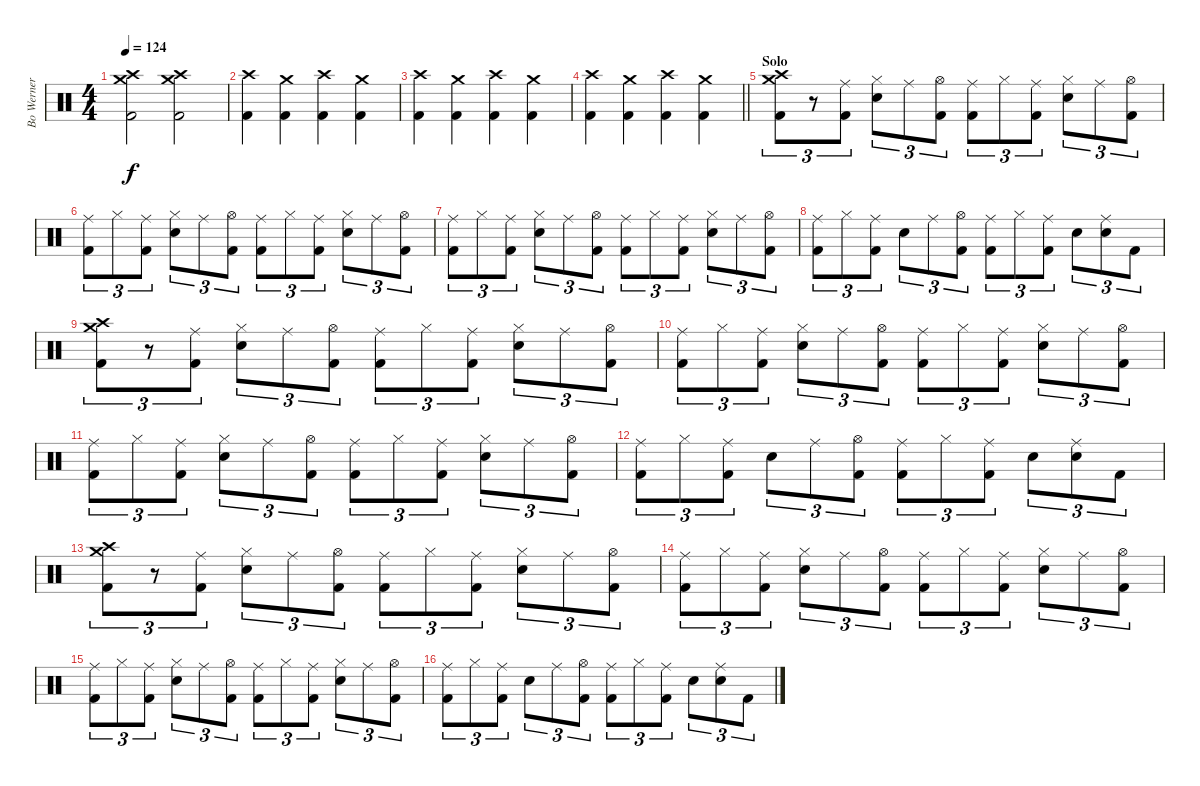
\track ("Bo Werner " "Bo Werner ") {instrument percussion}
\staff {score}
\articulation defaults
\ts (4 4)
\tempo 124
\clef neutral
\ks c
("Crash medium (hit)" "Crash high (hit)" "Kick (hit) 2").2{dy f} ("Crash high (hit)" "Crash medium (hit)" "Kick (hit) 2").2 |
("Crash high (hit)" "Kick (hit) 2").4 ("Crash medium (hit)" "Kick (hit) 2").4 ("Crash high (hit)" "Kick (hit) 2").4 ("Crash medium (hit)" "Kick (hit) 2").4 |
("Crash high (hit)" "Kick (hit) 2").4 ("Crash medium (hit)" "Kick (hit) 2").4 ("Crash high (hit)" "Kick (hit) 2").4 ("Crash medium (hit)" "Kick (hit) 2").4 |
\barLineRight lightlight
("Crash high (hit)" "Kick (hit) 2").4 ("Crash medium (hit)" "Kick (hit) 2").4 ("Crash high (hit)" "Kick (hit) 2").4 ("Crash medium (hit)" "Kick (hit) 2").4 |
\section ("" "Solo")
("Crash medium (hit)" "Crash high (hit)" "Kick (hit) 2").8{tu (3 2)} r.8{tu (3 2)} ("Ride (middle)" "Kick (hit) 2").8{tu (3 2)} ("Hi-Hat (closed)" "Electric Snare (hit)").8{tu (3 2)} "Ride (middle)".8{tu (3 2)} ("Hi-Hat (open)" "Kick (hit) 2").8{tu (3 2)} ("Ride (middle)" "Kick (hit) 2").8{tu (3 2)} "Hi-Hat (closed)".8{tu (3 2)} ("Ride (middle)" "Kick (hit) 2").8{tu (3 2)} ("Hi-Hat (closed)" "Electric Snare (hit)").8{tu (3 2)} "Ride (middle)".8{tu (3 2)} ("Hi-Hat (open)" "Kick (hit) 2").8{tu (3 2)} |
("Ride (middle)" "Kick (hit) 2").8{tu (3 2)} "Hi-Hat (closed)".8{tu (3 2)} ("Ride (middle)" "Kick (hit) 2").8{tu (3 2)} ("Hi-Hat (closed)" "Electric Snare (hit)").8{tu (3 2)} "Ride (middle)".8{tu (3 2)} ("Hi-Hat (open)" "Kick (hit) 2").8{tu (3 2)} ("Ride (middle)" "Kick (hit) 2").8{tu (3 2)} "Hi-Hat (closed)".8{tu (3 2)} ("Ride (middle)" "Kick (hit) 2").8{tu (3 2)} ("Hi-Hat (closed)" "Electric Snare (hit)").8{tu (3 2)} "Ride (middle)".8{tu (3 2)} ("Hi-Hat (open)" "Kick (hit) 2").8{tu (3 2)} |
("Ride (middle)" "Kick (hit) 2").8{tu (3 2)} "Hi-Hat (closed)".8{tu (3 2)} ("Ride (middle)" "Kick (hit) 2").8{tu (3 2)} ("Hi-Hat (closed)" "Electric Snare (hit)").8{tu (3 2)} "Ride (middle)".8{tu (3 2)} ("Hi-Hat (open)" "Kick (hit) 2").8{tu (3 2)} ("Ride (middle)" "Kick (hit) 2").8{tu (3 2)} "Hi-Hat (closed)".8{tu (3 2)} ("Ride (middle)" "Kick (hit) 2").8{tu (3 2)} ("Hi-Hat (closed)" "Electric Snare (hit)").8{tu (3 2)} "Ride (middle)".8{tu (3 2)} ("Hi-Hat (open)" "Kick (hit) 2").8{tu (3 2)} |
("Ride (middle)" "Kick (hit) 2").8{tu (3 2)} "Hi-Hat (closed)".8{tu (3 2)} ("Ride (middle)" "Kick (hit) 2").8{tu (3 2)} "Electric Snare (hit)".8{tu (3 2)} "Ride (middle)".8{tu (3 2)} ("Hi-Hat (open)" "Kick (hit) 2").8{tu (3 2)} ("Ride (middle)" "Kick (hit) 2").8{tu (3 2)} "Hi-Hat (closed)".8{tu (3 2)} ("Ride (middle)" "Kick (hit) 2").8{tu (3 2)} "Electric Snare (hit)".8{tu (3 2)} ("Ride (middle)" "Electric Snare (hit)").8{tu (3 2)} "Kick (hit) 2".8{tu (3 2)} |
("Crash medium (hit)" "Crash high (hit)" "Kick (hit) 2").8{tu (3 2)} r.8{tu (3 2)} ("Ride (middle)" "Kick (hit) 2").8{tu (3 2)} ("Hi-Hat (closed)" "Electric Snare (hit)").8{tu (3 2)} "Ride (middle)".8{tu (3 2)} ("Hi-Hat (open)" "Kick (hit) 2").8{tu (3 2)} ("Ride (middle)" "Kick (hit) 2").8{tu (3 2)} "Hi-Hat (closed)".8{tu (3 2)} ("Ride (middle)" "Kick (hit) 2").8{tu (3 2)} ("Hi-Hat (closed)" "Electric Snare (hit)").8{tu (3 2)} "Ride (middle)".8{tu (3 2)} ("Hi-Hat (open)" "Kick (hit) 2").8{tu (3 2)} |
("Ride (middle)" "Kick (hit) 2").8{tu (3 2)} "Hi-Hat (closed)".8{tu (3 2)} ("Ride (middle)" "Kick (hit) 2").8{tu (3 2)} ("Hi-Hat (closed)" "Electric Snare (hit)").8{tu (3 2)} "Ride (middle)".8{tu (3 2)} ("Hi-Hat (open)" "Kick (hit) 2").8{tu (3 2)} ("Ride (middle)" "Kick (hit) 2").8{tu (3 2)} "Hi-Hat (closed)".8{tu (3 2)} ("Ride (middle)" "Kick (hit) 2").8{tu (3 2)} ("Hi-Hat (closed)" "Electric Snare (hit)").8{tu (3 2)} "Ride (middle)".8{tu (3 2)} ("Hi-Hat (open)" "Kick (hit) 2").8{tu (3 2)} |
("Ride (middle)" "Kick (hit) 2").8{tu (3 2)} "Hi-Hat (closed)".8{tu (3 2)} ("Ride (middle)" "Kick (hit) 2").8{tu (3 2)} ("Hi-Hat (closed)" "Electric Snare (hit)").8{tu (3 2)} "Ride (middle)".8{tu (3 2)} ("Hi-Hat (open)" "Kick (hit) 2").8{tu (3 2)} ("Ride (middle)" "Kick (hit) 2").8{tu (3 2)} "Hi-Hat (closed)".8{tu (3 2)} ("Ride (middle)" "Kick (hit) 2").8{tu (3 2)} ("Hi-Hat (closed)" "Electric Snare (hit)").8{tu (3 2)} "Ride (middle)".8{tu (3 2)} ("Hi-Hat (open)" "Kick (hit) 2").8{tu (3 2)} |
("Ride (middle)" "Kick (hit) 2").8{tu (3 2)} "Hi-Hat (closed)".8{tu (3 2)} ("Ride (middle)" "Kick (hit) 2").8{tu (3 2)} "Electric Snare (hit)".8{tu (3 2)} "Ride (middle)".8{tu (3 2)} ("Hi-Hat (open)" "Kick (hit) 2").8{tu (3 2)} ("Ride (middle)" "Kick (hit) 2").8{tu (3 2)} "Hi-Hat (closed)".8{tu (3 2)} ("Ride (middle)" "Kick (hit) 2").8{tu (3 2)} "Electric Snare (hit)".8{tu (3 2)} ("Ride (middle)" "Electric Snare (hit)").8{tu (3 2)} "Kick (hit) 2".8{tu (3 2)} |
("Crash medium (hit)" "Crash high (hit)" "Kick (hit) 2").8{tu (3 2)} r.8{tu (3 2)} ("Ride (middle)" "Kick (hit) 2").8{tu (3 2)} ("Hi-Hat (closed)" "Electric Snare (hit)").8{tu (3 2)} "Ride (middle)".8{tu (3 2)} ("Hi-Hat (open)" "Kick (hit) 2").8{tu (3 2)} ("Ride (middle)" "Kick (hit) 2").8{tu (3 2)} "Hi-Hat (closed)".8{tu (3 2)} ("Ride (middle)" "Kick (hit) 2").8{tu (3 2)} ("Hi-Hat (closed)" "Electric Snare (hit)").8{tu (3 2)} "Ride (middle)".8{tu (3 2)} ("Hi-Hat (open)" "Kick (hit) 2").8{tu (3 2)} |
("Ride (middle)" "Kick (hit) 2").8{tu (3 2)} "Hi-Hat (closed)".8{tu (3 2)} ("Ride (middle)" "Kick (hit) 2").8{tu (3 2)} ("Hi-Hat (closed)" "Electric Snare (hit)").8{tu (3 2)} "Ride (middle)".8{tu (3 2)} ("Hi-Hat (open)" "Kick (hit) 2").8{tu (3 2)} ("Ride (middle)" "Kick (hit) 2").8{tu (3 2)} "Hi-Hat (closed)".8{tu (3 2)} ("Ride (middle)" "Kick (hit) 2").8{tu (3 2)} ("Hi-Hat (closed)" "Electric Snare (hit)").8{tu (3 2)} "Ride (middle)".8{tu (3 2)} ("Hi-Hat (open)" "Kick (hit) 2").8{tu (3 2)} |
("Ride (middle)" "Kick (hit) 2").8{tu (3 2)} "Hi-Hat (closed)".8{tu (3 2)} ("Ride (middle)" "Kick (hit) 2").8{tu (3 2)} ("Hi-Hat (closed)" "Electric Snare (hit)").8{tu (3 2)} "Ride (middle)".8{tu (3 2)} ("Hi-Hat (open)" "Kick (hit) 2").8{tu (3 2)} ("Ride (middle)" "Kick (hit) 2").8{tu (3 2)} "Hi-Hat (closed)".8{tu (3 2)} ("Ride (middle)" "Kick (hit) 2").8{tu (3 2)} ("Hi-Hat (closed)" "Electric Snare (hit)").8{tu (3 2)} "Ride (middle)".8{tu (3 2)} ("Hi-Hat (open)" "Kick (hit) 2").8{tu (3 2)} |
("Ride (middle)" "Kick (hit) 2").8{tu (3 2)} "Hi-Hat (closed)".8{tu (3 2)} ("Ride (middle)" "Kick (hit) 2").8{tu (3 2)} "Electric Snare (hit)".8{tu (3 2)} "Ride (middle)".8{tu (3 2)} ("Hi-Hat (open)" "Kick (hit) 2").8{tu (3 2)} ("Ride (middle)" "Kick (hit) 2").8{tu (3 2)} "Hi-Hat (closed)".8{tu (3 2)} ("Ride (middle)" "Kick (hit) 2").8{tu (3 2)} "Electric Snare (hit)".8{tu (3 2)} ("Ride (middle)" "Electric Snare (hit)").8{tu (3 2)} "Kick (hit) 2".8{tu (3 2)}
